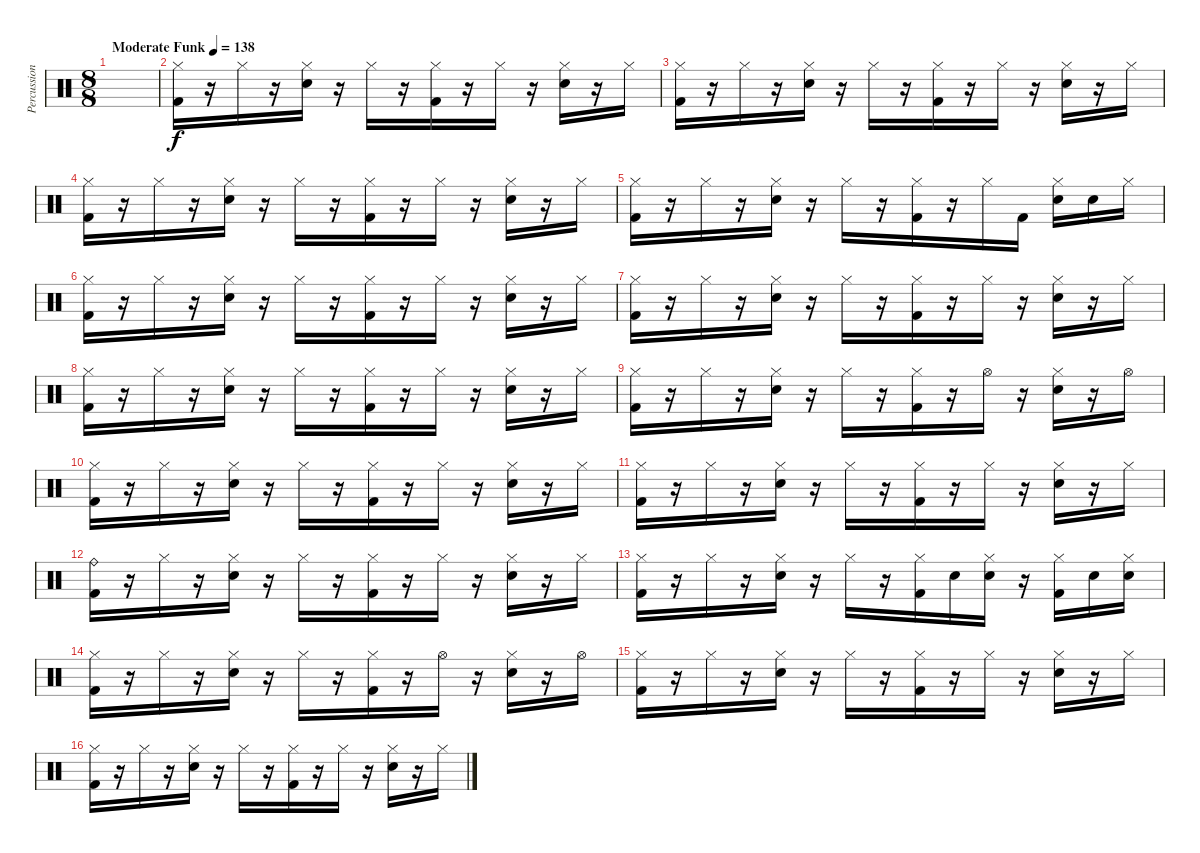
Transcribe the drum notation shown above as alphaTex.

\track ("Percussion" "Percussion") {instrument percussion}
\staff {score}
\articulation defaults
\ts (8 8)
\tempo (138 "Moderate Funk")
\clef neutral
\ks c
|
("Hi-Hat (closed)" "Kick (hit) 2").16 r.16 "Hi-Hat (closed)".16 r.16 ("Hi-Hat (closed)" "Electric Snare (hit)").16 r.16 "Hi-Hat (closed)".16 r.16 ("Hi-Hat (closed)" "Kick (hit) 2").16 r.16 "Hi-Hat (closed)".16 r.16 ("Hi-Hat (closed)" "Electric Snare (hit)").16 r.16 "Hi-Hat (closed)".16 |
("Hi-Hat (closed)" "Kick (hit) 2").16 r.16 "Hi-Hat (closed)".16 r.16 ("Hi-Hat (closed)" "Electric Snare (hit)").16 r.16 "Hi-Hat (closed)".16 r.16 ("Hi-Hat (closed)" "Kick (hit) 2").16 r.16 "Hi-Hat (closed)".16 r.16 ("Hi-Hat (closed)" "Electric Snare (hit)").16 r.16 "Hi-Hat (closed)".16 |
("Hi-Hat (closed)" "Kick (hit) 2").16 r.16 "Hi-Hat (closed)".16 r.16 ("Hi-Hat (closed)" "Electric Snare (hit)").16 r.16 "Hi-Hat (closed)".16 r.16 ("Hi-Hat (closed)" "Kick (hit) 2").16 r.16 "Hi-Hat (closed)".16 r.16 ("Hi-Hat (closed)" "Electric Snare (hit)").16 r.16 "Hi-Hat (closed)".16 |
("Hi-Hat (closed)" "Kick (hit) 2").16 r.16 "Hi-Hat (closed)".16 r.16 ("Hi-Hat (closed)" "Electric Snare (hit)").16 r.16 "Hi-Hat (closed)".16 r.16 ("Hi-Hat (closed)" "Kick (hit) 2").16 r.16 "Hi-Hat (closed)".16 "Kick (hit) 2".16 ("Hi-Hat (closed)" "Electric Snare (hit)").16 "Electric Snare (hit)".16 "Hi-Hat (closed)".16 |
("Hi-Hat (closed)" "Kick (hit) 2").16 r.16 "Hi-Hat (closed)".16 r.16 ("Hi-Hat (closed)" "Electric Snare (hit)").16 r.16 "Hi-Hat (closed)".16 r.16 ("Hi-Hat (closed)" "Kick (hit) 2").16 r.16 "Hi-Hat (closed)".16 r.16 ("Hi-Hat (closed)" "Electric Snare (hit)").16 r.16 "Hi-Hat (closed)".16 |
("Hi-Hat (closed)" "Kick (hit) 2").16 r.16 "Hi-Hat (closed)".16 r.16 ("Hi-Hat (closed)" "Electric Snare (hit)").16 r.16 "Hi-Hat (closed)".16 r.16 ("Hi-Hat (closed)" "Kick (hit) 2").16 r.16 "Hi-Hat (closed)".16 r.16 ("Hi-Hat (closed)" "Electric Snare (hit)").16 r.16 "Hi-Hat (closed)".16 |
("Hi-Hat (closed)" "Kick (hit) 2").16 r.16 "Hi-Hat (closed)".16 r.16 ("Hi-Hat (closed)" "Electric Snare (hit)").16 r.16 "Hi-Hat (closed)".16 r.16 ("Hi-Hat (closed)" "Kick (hit) 2").16 r.16 "Hi-Hat (closed)".16 r.16 ("Hi-Hat (closed)" "Electric Snare (hit)").16 r.16 "Hi-Hat (closed)".16 |
("Hi-Hat (closed)" "Kick (hit) 2").16 r.16 "Hi-Hat (closed)".16 r.16 ("Hi-Hat (closed)" "Electric Snare (hit)").16 r.16 "Hi-Hat (closed)".16 r.16 ("Hi-Hat (closed)" "Kick (hit) 2").16 r.16 "Hi-Hat (open)".16 r.16 ("Hi-Hat (closed)" "Electric Snare (hit)").16 r.16 "Hi-Hat (open)".16 |
("Hi-Hat (closed)" "Kick (hit) 2").16 r.16 "Hi-Hat (closed)".16 r.16 ("Hi-Hat (closed)" "Electric Snare (hit)").16 r.16 "Hi-Hat (closed)".16 r.16 ("Hi-Hat (closed)" "Kick (hit) 2").16 r.16 "Hi-Hat (closed)".16 r.16 ("Hi-Hat (closed)" "Electric Snare (hit)").16 r.16 "Hi-Hat (closed)".16 |
("Hi-Hat (closed)" "Kick (hit) 2").16 r.16 "Hi-Hat (closed)".16 r.16 ("Hi-Hat (closed)" "Electric Snare (hit)").16 r.16 "Hi-Hat (closed)".16 r.16 ("Hi-Hat (closed)" "Kick (hit) 2").16 r.16 "Hi-Hat (closed)".16 r.16 ("Hi-Hat (closed)" "Electric Snare (hit)").16 r.16 "Hi-Hat (closed)".16 |
("Ride (bell)" "Kick (hit) 2").16 r.16 "Hi-Hat (closed)".16 r.16 ("Hi-Hat (closed)" "Electric Snare (hit)").16 r.16 "Hi-Hat (closed)".16 r.16 ("Hi-Hat (closed)" "Kick (hit) 2").16 r.16 "Hi-Hat (closed)".16 r.16 ("Hi-Hat (closed)" "Electric Snare (hit)").16 r.16 "Hi-Hat (closed)".16 |
("Hi-Hat (closed)" "Kick (hit) 2").16 r.16 "Hi-Hat (closed)".16 r.16 ("Hi-Hat (closed)" "Electric Snare (hit)").16 r.16 "Hi-Hat (closed)".16 r.16 ("Hi-Hat (closed)" "Kick (hit) 2").16 "Electric Snare (hit)".16 ("Hi-Hat (closed)" "Electric Snare (hit)").16 r.16 ("Hi-Hat (closed)" "Kick (hit) 2").16 "Electric Snare (hit)".16 ("Hi-Hat (closed)" "Electric Snare (hit)").16 |
("Hi-Hat (closed)" "Kick (hit) 2").16 r.16 "Hi-Hat (closed)".16 r.16 ("Hi-Hat (closed)" "Electric Snare (hit)").16 r.16 "Hi-Hat (closed)".16 r.16 ("Hi-Hat (closed)" "Kick (hit) 2").16 r.16 "Hi-Hat (open)".16 r.16 ("Hi-Hat (closed)" "Electric Snare (hit)").16 r.16 "Hi-Hat (open)".16 |
("Hi-Hat (closed)" "Kick (hit) 2").16 r.16 "Hi-Hat (closed)".16 r.16 ("Hi-Hat (closed)" "Electric Snare (hit)").16 r.16 "Hi-Hat (closed)".16 r.16 ("Hi-Hat (closed)" "Kick (hit) 2").16 r.16 "Hi-Hat (closed)".16 r.16 ("Hi-Hat (closed)" "Electric Snare (hit)").16 r.16 "Hi-Hat (closed)".16 |
("Hi-Hat (closed)" "Kick (hit) 2").16 r.16 "Hi-Hat (closed)".16 r.16 ("Hi-Hat (closed)" "Electric Snare (hit)").16 r.16 "Hi-Hat (closed)".16 r.16 ("Hi-Hat (closed)" "Kick (hit) 2").16 r.16 "Hi-Hat (closed)".16 r.16 ("Hi-Hat (closed)" "Electric Snare (hit)").16 r.16 "Hi-Hat (closed)".16
